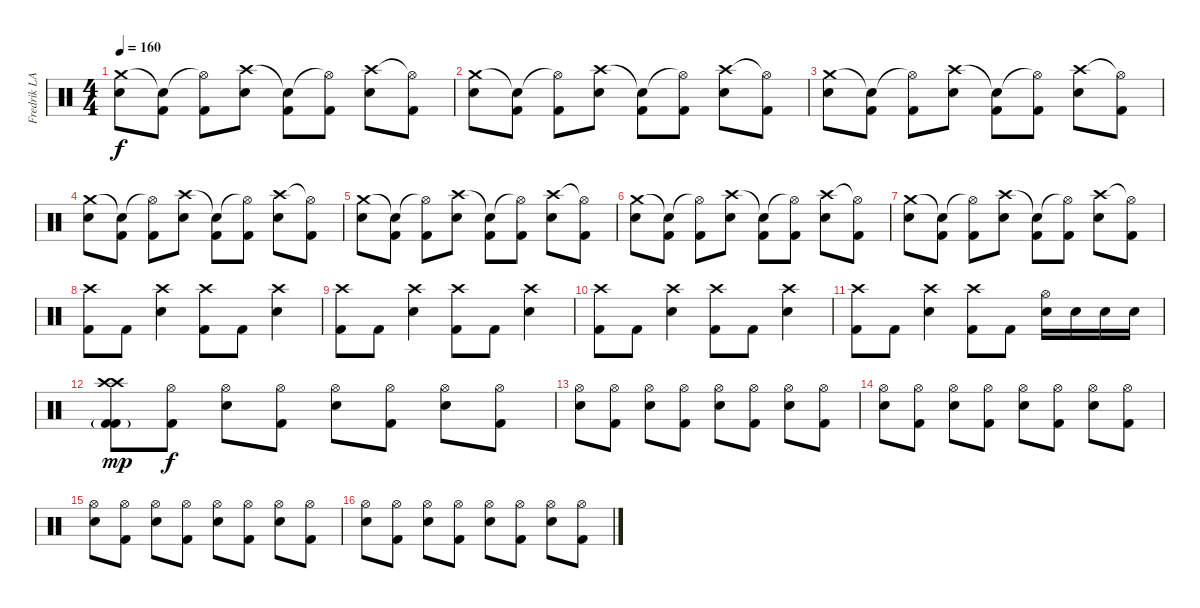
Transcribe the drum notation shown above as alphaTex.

\track ("Fredrik LARZON" "Fredrik LA") {instrument percussion}
\staff {score}
\articulation defaults
\ts (4 4)
\tempo 160
\clef neutral
\ks c
("Crash medium (hit)" "Electric Snare (hit)").8{dy f} ("Snare (hit)"{t} "Kick (hit) 2").8 ("Hi-Hat (open)"{t} "Kick (hit) 2").8 ("Crash high (hit)" "Electric Snare (hit)").8 ("Snare (hit)"{t} "Kick (hit) 2").8 ("Hi-Hat (open)"{t} "Kick (hit) 2").8 ("Crash high (hit)" "Electric Snare (hit)").8 ("Hi-Hat (open)"{t} "Kick (hit) 2").8 |
("Crash medium (hit)" "Electric Snare (hit)").8 ("Snare (hit)"{t} "Kick (hit) 2").8 ("Hi-Hat (open)"{t} "Kick (hit) 2").8 ("Crash high (hit)" "Electric Snare (hit)").8 ("Snare (hit)"{t} "Kick (hit) 2").8 ("Hi-Hat (open)"{t} "Kick (hit) 2").8 ("Crash high (hit)" "Electric Snare (hit)").8 ("Hi-Hat (open)"{t} "Kick (hit) 2").8 |
("Crash medium (hit)" "Electric Snare (hit)").8 ("Snare (hit)"{t} "Kick (hit) 2").8 ("Hi-Hat (open)"{t} "Kick (hit) 2").8 ("Crash high (hit)" "Electric Snare (hit)").8 ("Snare (hit)"{t} "Kick (hit) 2").8 ("Hi-Hat (open)"{t} "Kick (hit) 2").8 ("Crash high (hit)" "Electric Snare (hit)").8 ("Hi-Hat (open)"{t} "Kick (hit) 2").8 |
("Crash medium (hit)" "Electric Snare (hit)").8 ("Snare (hit)"{t} "Kick (hit) 2").8 ("Hi-Hat (open)"{t} "Kick (hit) 2").8 ("Crash high (hit)" "Electric Snare (hit)").8 ("Snare (hit)"{t} "Kick (hit) 2").8 ("Hi-Hat (open)"{t} "Kick (hit) 2").8 ("Crash high (hit)" "Electric Snare (hit)").8 ("Hi-Hat (open)"{t} "Kick (hit) 2").8 |
("Crash medium (hit)" "Electric Snare (hit)").8 ("Snare (hit)"{t} "Kick (hit) 2").8 ("Hi-Hat (open)"{t} "Kick (hit) 2").8 ("Crash high (hit)" "Electric Snare (hit)").8 ("Snare (hit)"{t} "Kick (hit) 2").8 ("Hi-Hat (open)"{t} "Kick (hit) 2").8 ("Crash high (hit)" "Electric Snare (hit)").8 ("Hi-Hat (open)"{t} "Kick (hit) 2").8 |
("Crash medium (hit)" "Electric Snare (hit)").8 ("Snare (hit)"{t} "Kick (hit) 2").8 ("Hi-Hat (open)"{t} "Kick (hit) 2").8 ("Crash high (hit)" "Electric Snare (hit)").8 ("Snare (hit)"{t} "Kick (hit) 2").8 ("Hi-Hat (open)"{t} "Kick (hit) 2").8 ("Crash high (hit)" "Electric Snare (hit)").8 ("Hi-Hat (open)"{t} "Kick (hit) 2").8 |
("Crash medium (hit)" "Electric Snare (hit)").8 ("Snare (hit)"{t} "Kick (hit) 2").8 ("Hi-Hat (open)"{t} "Kick (hit) 2").8 ("Crash high (hit)" "Electric Snare (hit)").8 ("Snare (hit)"{t} "Kick (hit) 2").8 ("Hi-Hat (open)"{t} "Kick (hit) 2").8 ("Crash high (hit)" "Electric Snare (hit)").8 ("Hi-Hat (open)"{t} "Kick (hit) 2").8 |
("Crash high (hit)" "Kick (hit) 2").8 "Kick (hit) 2".8 ("Crash high (hit)" "Electric Snare (hit)").4 ("Crash high (hit)" "Kick (hit) 2").8 "Kick (hit) 2".8 ("Crash high (hit)" "Electric Snare (hit)").4 |
("Crash high (hit)" "Kick (hit) 2").8 "Kick (hit) 2".8 ("Crash high (hit)" "Electric Snare (hit)").4 ("Crash high (hit)" "Kick (hit) 2").8 "Kick (hit) 2".8 ("Crash high (hit)" "Electric Snare (hit)").4 |
("Crash high (hit)" "Kick (hit) 2").8 "Kick (hit) 2".8 ("Crash high (hit)" "Electric Snare (hit)").4 ("Crash high (hit)" "Kick (hit) 2").8 "Kick (hit) 2".8 ("Crash high (hit)" "Electric Snare (hit)").4 |
("Crash high (hit)" "Kick (hit) 2").8 "Kick (hit) 2".8 ("Crash high (hit)" "Electric Snare (hit)").4 ("Crash high (hit)" "Kick (hit) 2").8 "Kick (hit) 2".8 ("Hi-Hat (open)" "Electric Snare (hit)").16 "Electric Snare (hit)".16 "Electric Snare (hit)".16 "Electric Snare (hit)".16 |
("Crash high (hit)" "Crash high (hit)" "Kick (hit) 2"{g} "Kick (hit) 2").8{dy mp} ("Hi-Hat (open)" "Kick (hit) 2").8{dy f} ("Hi-Hat (open)" "Electric Snare (hit)").8 ("Hi-Hat (open)" "Kick (hit) 2").8 ("Hi-Hat (open)" "Electric Snare (hit)").8 ("Hi-Hat (open)" "Kick (hit) 2").8 ("Hi-Hat (open)" "Electric Snare (hit)").8 ("Hi-Hat (open)" "Kick (hit) 2").8 |
("Hi-Hat (open)" "Electric Snare (hit)").8 ("Hi-Hat (open)" "Kick (hit) 2").8 ("Hi-Hat (open)" "Electric Snare (hit)").8 ("Hi-Hat (open)" "Kick (hit) 2").8 ("Hi-Hat (open)" "Electric Snare (hit)").8 ("Hi-Hat (open)" "Kick (hit) 2").8 ("Hi-Hat (open)" "Electric Snare (hit)").8 ("Hi-Hat (open)" "Kick (hit) 2").8 |
("Hi-Hat (open)" "Electric Snare (hit)").8 ("Hi-Hat (open)" "Kick (hit) 2").8 ("Hi-Hat (open)" "Electric Snare (hit)").8 ("Hi-Hat (open)" "Kick (hit) 2").8 ("Hi-Hat (open)" "Electric Snare (hit)").8 ("Hi-Hat (open)" "Kick (hit) 2").8 ("Hi-Hat (open)" "Electric Snare (hit)").8 ("Hi-Hat (open)" "Kick (hit) 2").8 |
("Hi-Hat (open)" "Electric Snare (hit)").8 ("Hi-Hat (open)" "Kick (hit) 2").8 ("Hi-Hat (open)" "Electric Snare (hit)").8 ("Hi-Hat (open)" "Kick (hit) 2").8 ("Hi-Hat (open)" "Electric Snare (hit)").8 ("Hi-Hat (open)" "Kick (hit) 2").8 ("Hi-Hat (open)" "Electric Snare (hit)").8 ("Hi-Hat (open)" "Kick (hit) 2").8 |
("Hi-Hat (open)" "Electric Snare (hit)").8 ("Hi-Hat (open)" "Kick (hit) 2").8 ("Hi-Hat (open)" "Electric Snare (hit)").8 ("Hi-Hat (open)" "Kick (hit) 2").8 ("Hi-Hat (open)" "Electric Snare (hit)").8 ("Hi-Hat (open)" "Kick (hit) 2").8 ("Hi-Hat (open)" "Electric Snare (hit)").8 ("Hi-Hat (open)" "Kick (hit) 2").8
